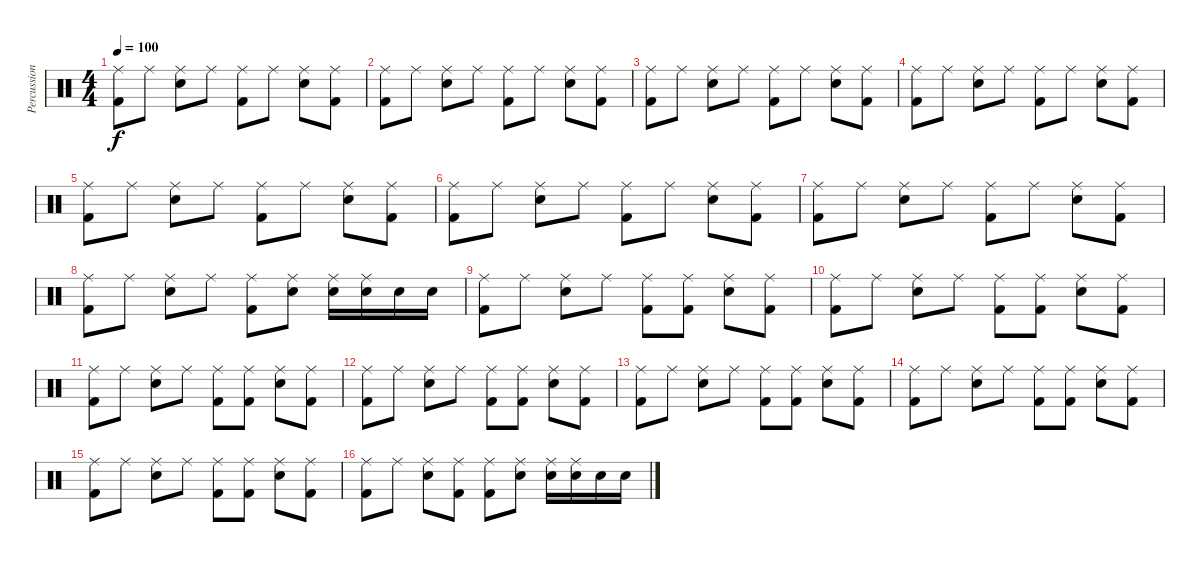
\track ("Percussion" "Percussion") {instrument percussion}
\staff {score}
\articulation defaults
\ts (4 4)
\tempo 100
\clef neutral
\ks c
("Kick (hit) 2" "Ride (middle)").8{dy f} "Ride (middle)".8 ("Snare (hit) 2" "Ride (middle)").8 "Ride (middle)".8 ("Kick (hit) 2" "Ride (middle)").8 "Ride (middle)".8 ("Snare (hit) 2" "Ride (middle)").8 ("Kick (hit) 2" "Ride (middle)").8 |
("Kick (hit) 2" "Ride (middle)").8 "Ride (middle)".8 ("Snare (hit) 2" "Ride (middle)").8 "Ride (middle)".8 ("Kick (hit) 2" "Ride (middle)").8 "Ride (middle)".8 ("Snare (hit) 2" "Ride (middle)").8 ("Kick (hit) 2" "Ride (middle)").8 |
("Kick (hit) 2" "Ride (middle)").8 "Ride (middle)".8 ("Snare (hit) 2" "Ride (middle)").8 "Ride (middle)".8 ("Kick (hit) 2" "Ride (middle)").8 "Ride (middle)".8 ("Snare (hit) 2" "Ride (middle)").8 ("Kick (hit) 2" "Ride (middle)").8 |
("Kick (hit) 2" "Ride (middle)").8 "Ride (middle)".8 ("Snare (hit) 2" "Ride (middle)").8 "Ride (middle)".8 ("Kick (hit) 2" "Ride (middle)").8 "Ride (middle)".8 ("Snare (hit) 2" "Ride (middle)").8 ("Kick (hit) 2" "Ride (middle)").8 |
("Kick (hit) 2" "Ride (middle)").8 "Ride (middle)".8 ("Snare (hit) 2" "Ride (middle)").8 "Ride (middle)".8 ("Kick (hit) 2" "Ride (middle)").8 "Ride (middle)".8 ("Snare (hit) 2" "Ride (middle)").8 ("Kick (hit) 2" "Ride (middle)").8 |
("Kick (hit) 2" "Ride (middle)").8 "Ride (middle)".8 ("Snare (hit) 2" "Ride (middle)").8 "Ride (middle)".8 ("Kick (hit) 2" "Ride (middle)").8 "Ride (middle)".8 ("Snare (hit) 2" "Ride (middle)").8 ("Kick (hit) 2" "Ride (middle)").8 |
("Kick (hit) 2" "Ride (middle)").8 "Ride (middle)".8 ("Snare (hit) 2" "Ride (middle)").8 "Ride (middle)".8 ("Kick (hit) 2" "Ride (middle)").8 "Ride (middle)".8 ("Snare (hit) 2" "Ride (middle)").8 ("Kick (hit) 2" "Ride (middle)").8 |
("Kick (hit) 2" "Ride (middle)").8 "Ride (middle)".8 ("Snare (hit) 2" "Ride (middle)").8 "Ride (middle)".8 ("Kick (hit) 2" "Ride (middle)").8 ("Snare (hit) 2" "Ride (middle)").8 ("Snare (hit) 2" "Ride (middle)").16 ("Snare (hit) 2" "Ride (middle)").16 "Snare (hit) 2".16 "Snare (hit) 2".16 |
("Kick (hit) 2" "Ride (middle)").8 "Ride (middle)".8 ("Snare (hit) 2" "Ride (middle)").8 "Ride (middle)".8 ("Kick (hit) 2" "Ride (middle)").8 ("Kick (hit) 2" "Ride (middle)").8 ("Snare (hit) 2" "Ride (middle)").8 ("Kick (hit) 2" "Ride (middle)").8 |
("Kick (hit) 2" "Ride (middle)").8 "Ride (middle)".8 ("Snare (hit) 2" "Ride (middle)").8 "Ride (middle)".8 ("Kick (hit) 2" "Ride (middle)").8 ("Kick (hit) 2" "Ride (middle)").8 ("Snare (hit) 2" "Ride (middle)").8 ("Kick (hit) 2" "Ride (middle)").8 |
("Kick (hit) 2" "Ride (middle)").8 "Ride (middle)".8 ("Snare (hit) 2" "Ride (middle)").8 "Ride (middle)".8 ("Kick (hit) 2" "Ride (middle)").8 ("Kick (hit) 2" "Ride (middle)").8 ("Snare (hit) 2" "Ride (middle)").8 ("Kick (hit) 2" "Ride (middle)").8 |
("Kick (hit) 2" "Ride (middle)").8 "Ride (middle)".8 ("Snare (hit) 2" "Ride (middle)").8 "Ride (middle)".8 ("Kick (hit) 2" "Ride (middle)").8 ("Kick (hit) 2" "Ride (middle)").8 ("Snare (hit) 2" "Ride (middle)").8 ("Kick (hit) 2" "Ride (middle)").8 |
("Kick (hit) 2" "Ride (middle)").8 "Ride (middle)".8 ("Snare (hit) 2" "Ride (middle)").8 "Ride (middle)".8 ("Kick (hit) 2" "Ride (middle)").8 ("Kick (hit) 2" "Ride (middle)").8 ("Snare (hit) 2" "Ride (middle)").8 ("Kick (hit) 2" "Ride (middle)").8 |
("Kick (hit) 2" "Ride (middle)").8 "Ride (middle)".8 ("Snare (hit) 2" "Ride (middle)").8 "Ride (middle)".8 ("Kick (hit) 2" "Ride (middle)").8 ("Kick (hit) 2" "Ride (middle)").8 ("Snare (hit) 2" "Ride (middle)").8 ("Kick (hit) 2" "Ride (middle)").8 |
("Kick (hit) 2" "Ride (middle)").8 "Ride (middle)".8 ("Snare (hit) 2" "Ride (middle)").8 "Ride (middle)".8 ("Kick (hit) 2" "Ride (middle)").8 ("Kick (hit) 2" "Ride (middle)").8 ("Snare (hit) 2" "Ride (middle)").8 ("Kick (hit) 2" "Ride (middle)").8 |
("Kick (hit) 2" "Ride (middle)").8 "Ride (middle)".8 ("Snare (hit) 2" "Ride (middle)").8 ("Kick (hit) 2" "Ride (middle)").8 ("Kick (hit) 2" "Ride (middle)").8 ("Snare (hit) 2" "Ride (middle)").8 ("Snare (hit) 2" "Ride (middle)").16 ("Snare (hit) 2" "Ride (middle)").16 "Snare (hit) 2".16 "Snare (hit) 2".16
